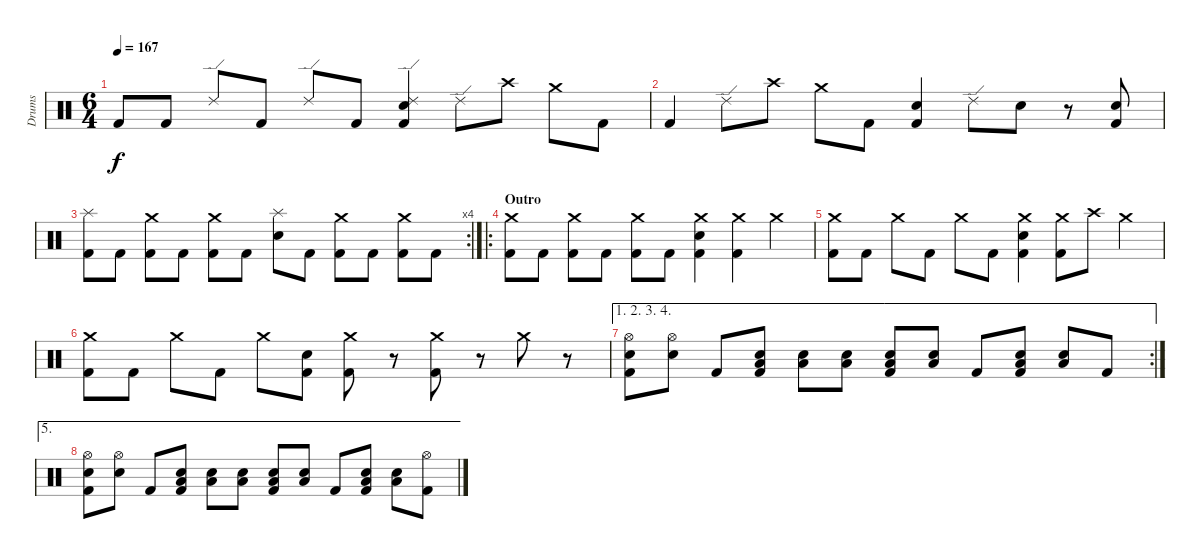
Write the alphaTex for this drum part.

\track ("Drums" "Drums") {instrument percussion}
\staff {score}
\articulation defaults
\ts (6 4)
\tempo 167
\clef neutral
\ks c "Kick (hit) 2".8{dy f} "Kick (hit) 2".8 "Ride (edge) 2".8 "Kick (hit) 2".8 "Ride (edge) 2".8 "Kick (hit) 2".8
("Ride (edge) 2" "Electric Snare (hit)" "Kick (hit) 2").4 "Ride (edge) 2".8 "Crash high (hit)".8 "Crash medium (hit)".8 "Kick (hit) 2".8 |
"Kick (hit) 2".4 "Ride (edge) 2".8 "Crash high (hit)".8 "Crash medium (hit)".8 "Kick (hit) 2".8 ("Electric Snare (hit)" "Kick (hit) 2").4 "Ride (edge) 2".8 "Electric Snare (hit)".8 r.8 ("Electric Snare (hit)" "Kick (hit) 2").8 |
\rc 4
("Splash (hit)" "Kick (hit) 2").8 "Kick (hit) 2".8 ("Crash medium (hit)" "Kick (hit) 2").8 "Kick (hit) 2".8 ("Crash medium (hit)" "Kick (hit) 2").8 "Kick (hit) 2".8 ("Splash (hit)" "Electric Snare (hit)").8 "Kick (hit) 2".8 ("Crash medium (hit)" "Kick (hit) 2").8 "Kick (hit) 2".8 ("Crash medium (hit)" "Kick (hit) 2").8 "Kick (hit) 2".8 |
\ro
\section ("" "Outro")
("Crash medium (hit)" "Kick (hit) 2").8 "Kick (hit) 2".8 ("Crash medium (hit)" "Kick (hit) 2").8 "Kick (hit) 2".8 ("Crash medium (hit)" "Kick (hit) 2").8 "Kick (hit) 2".8 ("Crash medium (hit)" "Electric Snare (hit)" "Kick (hit) 2").4 ("Crash medium (hit)" "Kick (hit) 2").4 "Crash medium (hit)".4 |
("Crash medium (hit)" "Kick (hit) 2").8 "Kick (hit) 2".8 "Crash medium (hit)".8 "Kick (hit) 2".8 "Crash medium (hit)".8 "Kick (hit) 2".8 ("Crash medium (hit)" "Electric Snare (hit)" "Kick (hit) 2").4 ("Crash medium (hit)" "Kick (hit) 2").8 "Crash high (hit)".8 "Crash medium (hit)".4 |
("Crash medium (hit)" "Kick (hit) 2").8 "Kick (hit) 2".8 "Crash medium (hit)".8 "Kick (hit) 2".8 "Crash medium (hit)".8 ("Electric Snare (hit)" "Kick (hit) 2").8 ("Crash medium (hit)" "Kick (hit) 2").8 r.8 ("Crash medium (hit)" "Kick (hit) 2").8 r.8 "Crash medium (hit)".8 r.8 |
\ae (1 2 3 4)
\rc 2
("Hi-Hat (open)" "Electric Snare (hit)" "Kick (hit) 2").8 ("Hi-Hat (open)" "Electric Snare (hit)").8 "Kick (hit) 2".8 ("Low Floor Tom (hit)" "Electric Snare (hit)" "Kick (hit) 2").8 ("Low Floor Tom (hit)" "Electric Snare (hit)").8 ("Low Floor Tom (hit)" "Electric Snare (hit)").8 ("Low Floor Tom (hit)" "Electric Snare (hit)" "Kick (hit) 2").8 ("Low Floor Tom (hit)" "Electric Snare (hit)").8 "Kick (hit) 2".8 ("Low Floor Tom (hit)" "Electric Snare (hit)" "Kick (hit) 2").8 ("Low Floor Tom (hit)" "Electric Snare (hit)").8 "Kick (hit) 2".8 |
\ae 5
("Hi-Hat (open)" "Electric Snare (hit)" "Kick (hit) 2").8 ("Hi-Hat (open)" "Electric Snare (hit)").8 "Kick (hit) 2".8 ("Low Floor Tom (hit)" "Electric Snare (hit)" "Kick (hit) 2").8 ("Low Floor Tom (hit)" "Electric Snare (hit)").8 ("Low Floor Tom (hit)" "Electric Snare (hit)").8 ("Low Floor Tom (hit)" "Electric Snare (hit)" "Kick (hit) 2").8 ("Low Floor Tom (hit)" "Electric Snare (hit)").8 "Kick (hit) 2".8 ("Low Floor Tom (hit)" "Electric Snare (hit)" "Kick (hit) 2").8 ("Low Floor Tom (hit)" "Electric Snare (hit)").8 ("Hi-Hat (open)" "Kick (hit) 2").8
